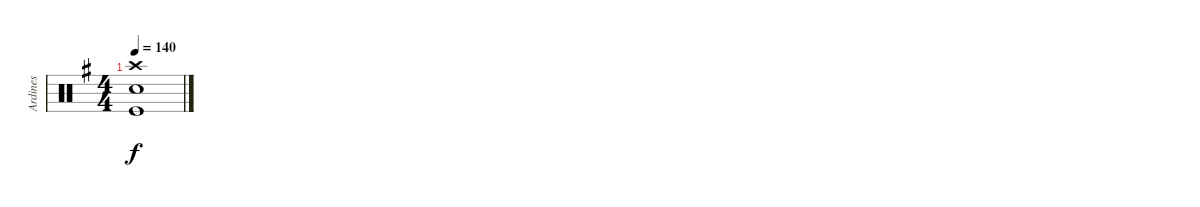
\track ("Ardines" "Ardines") {instrument percussion}
\staff {score}
\articulation defaults
\ts (4 4)
\tempo 140
\clef neutral
\ks g
("Crash high (hit)" "Electric Snare (hit)" "Kick (hit)").1{dy f}
